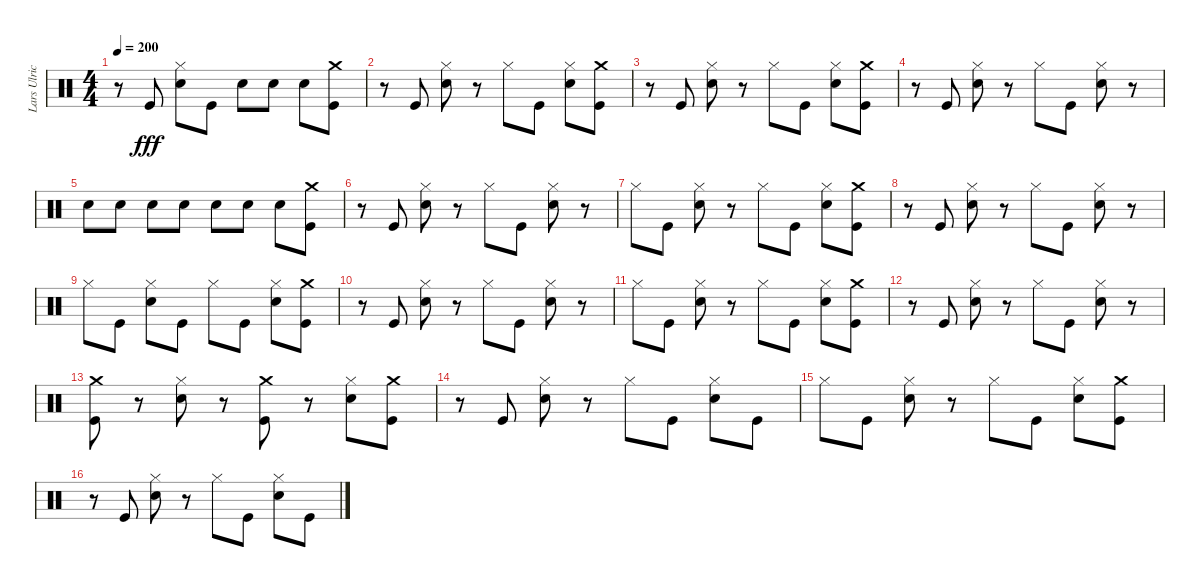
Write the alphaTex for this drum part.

\track ("Lars Ulrich" "Lars Ulric") {instrument percussion}
\staff {score}
\articulation defaults
\ts (4 4)
\tempo 200
\clef neutral
\ks c
r.8{dy fff} "Kick (hit)".8 ("Hi-Hat (closed)" "Snare (hit) 2").8 "Kick (hit)".8 "Snare (hit) 2".8 "Snare (hit) 2".8 "Snare (hit) 2".8 ("Crash medium (hit)" "Kick (hit)").8 |
r.8 "Kick (hit)".8 ("Hi-Hat (closed)" "Snare (hit) 2").8 r.8 "Hi-Hat (closed)".8 "Kick (hit)".8 ("Hi-Hat (closed)" "Snare (hit) 2").8 ("Crash medium (hit)" "Kick (hit)").8 |
r.8 "Kick (hit)".8 ("Hi-Hat (closed)" "Snare (hit) 2").8 r.8 "Hi-Hat (closed)".8 "Kick (hit)".8 ("Hi-Hat (closed)" "Snare (hit) 2").8 ("Crash medium (hit)" "Kick (hit)").8 |
r.8 "Kick (hit)".8 ("Hi-Hat (closed)" "Snare (hit) 2").8 r.8 "Hi-Hat (closed)".8 "Kick (hit)".8 ("Hi-Hat (closed)" "Snare (hit) 2").8 r.8 |
"Snare (hit) 2".8 "Snare (hit) 2".8 "Snare (hit) 2".8 "Snare (hit) 2".8 "Snare (hit) 2".8 "Snare (hit) 2".8 "Snare (hit) 2".8 ("Crash medium (hit)" "Kick (hit)").8 |
r.8 "Kick (hit)".8 ("Hi-Hat (closed)" "Snare (hit) 2").8 r.8 "Hi-Hat (closed)".8 "Kick (hit)".8 ("Hi-Hat (closed)" "Snare (hit) 2").8 r.8 |
"Hi-Hat (closed)".8 "Kick (hit)".8 ("Hi-Hat (closed)" "Snare (hit) 2").8 r.8 "Hi-Hat (closed)".8 "Kick (hit)".8 ("Hi-Hat (closed)" "Snare (hit) 2").8 ("Crash medium (hit)" "Kick (hit)").8 |
r.8 "Kick (hit)".8 ("Hi-Hat (closed)" "Snare (hit) 2").8 r.8 "Hi-Hat (closed)".8 "Kick (hit)".8 ("Hi-Hat (closed)" "Snare (hit) 2").8 r.8 |
"Hi-Hat (closed)".8 "Kick (hit)".8 ("Hi-Hat (closed)" "Snare (hit) 2").8 "Kick (hit)".8 "Hi-Hat (closed)".8 "Kick (hit)".8 ("Hi-Hat (closed)" "Snare (hit) 2").8 ("Crash medium (hit)" "Kick (hit)").8 |
r.8 "Kick (hit)".8 ("Hi-Hat (closed)" "Snare (hit) 2").8 r.8 "Hi-Hat (closed)".8 "Kick (hit)".8 ("Hi-Hat (closed)" "Snare (hit) 2").8 r.8 |
"Hi-Hat (closed)".8 "Kick (hit)".8 ("Hi-Hat (closed)" "Snare (hit) 2").8 r.8 "Hi-Hat (closed)".8 "Kick (hit)".8 ("Hi-Hat (closed)" "Snare (hit) 2").8 ("Crash medium (hit)" "Kick (hit)").8 |
r.8 "Kick (hit)".8 ("Hi-Hat (closed)" "Snare (hit) 2").8 r.8 "Hi-Hat (closed)".8 "Kick (hit)".8 ("Hi-Hat (closed)" "Snare (hit) 2").8 r.8 |
("Crash medium (hit)" "Kick (hit)").8 r.8 ("Snare (hit) 2" "Hi-Hat (closed)").8 r.8 ("Crash medium (hit)" "Kick (hit)").8 r.8 ("Hi-Hat (closed)" "Snare (hit) 2").8 ("Crash medium (hit)" "Kick (hit)").8 |
r.8 "Kick (hit)".8 ("Hi-Hat (closed)" "Snare (hit) 2").8 r.8 "Hi-Hat (closed)".8 "Kick (hit)".8 ("Snare (hit) 2" "Hi-Hat (closed)").8 "Kick (hit)".8 |
"Hi-Hat (closed)".8 "Kick (hit)".8 ("Hi-Hat (closed)" "Snare (hit) 2").8 r.8 "Hi-Hat (closed)".8 "Kick (hit)".8 ("Hi-Hat (closed)" "Snare (hit) 2").8 ("Crash medium (hit)" "Kick (hit)").8 |
r.8 "Kick (hit)".8 ("Hi-Hat (closed)" "Snare (hit) 2").8 r.8 "Hi-Hat (closed)".8 "Kick (hit)".8 ("Hi-Hat (closed)" "Snare (hit) 2").8 "Kick (hit)".8
